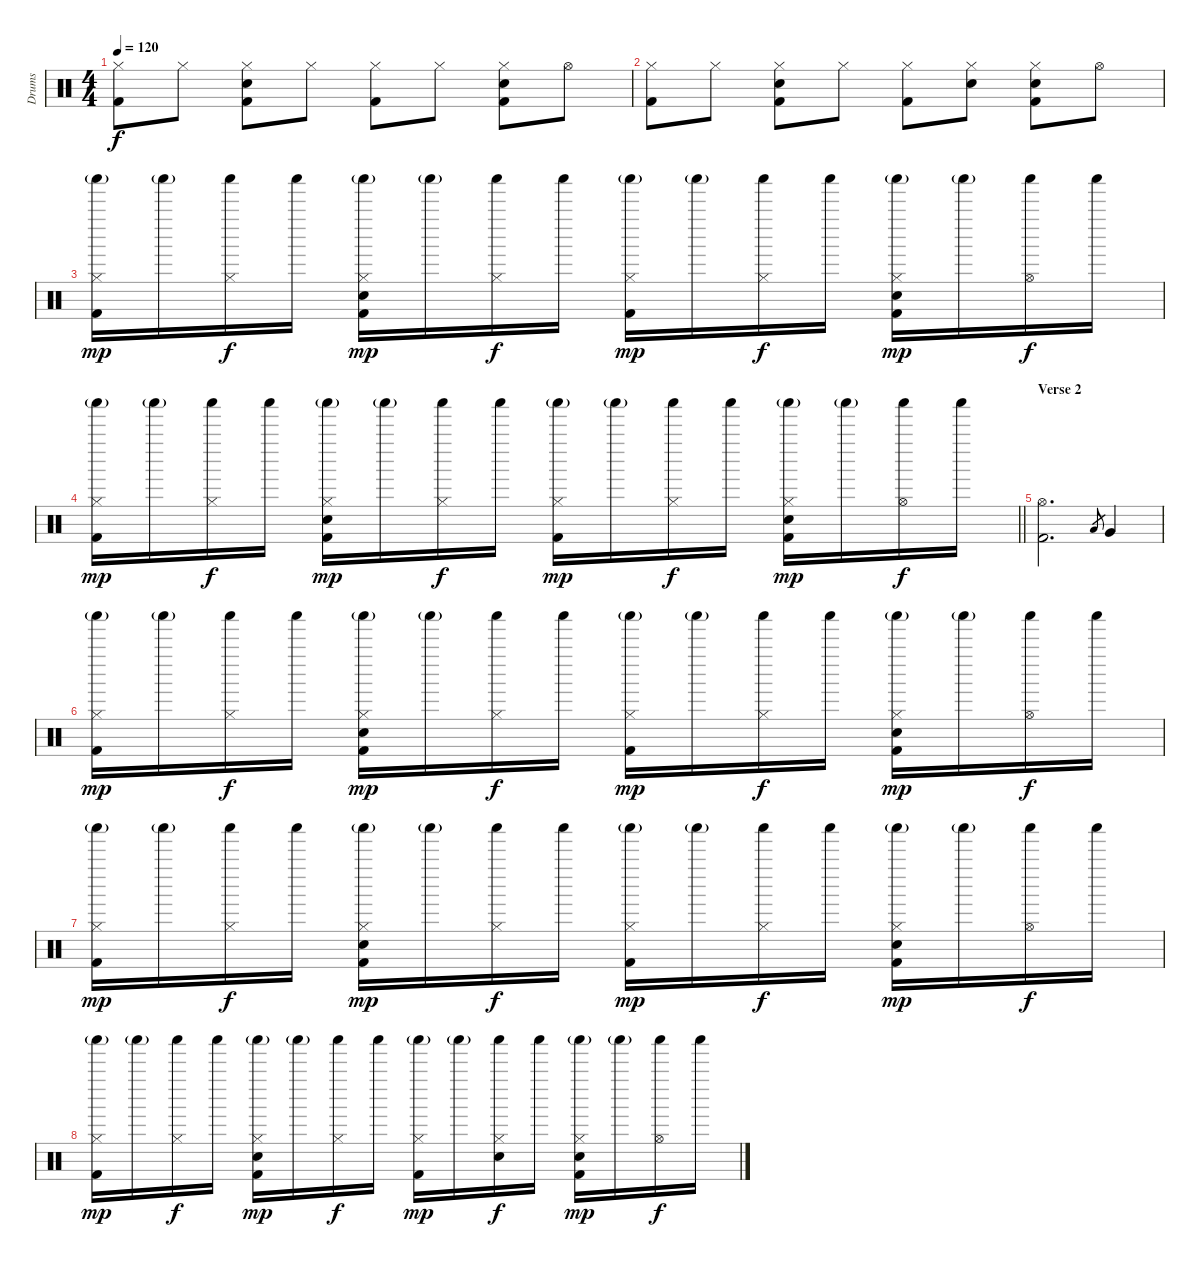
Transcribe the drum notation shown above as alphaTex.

\track ("Drums" "Drums") {instrument percussion}
\staff {score}
\articulation defaults
\ts (4 4)
\tempo 120
\clef neutral
\ks c
("Hi-Hat (closed)" "Kick (hit) 2").8{dy f} "Hi-Hat (closed)".8 ("Hi-Hat (closed)" "Electric Snare (hit)" "Kick (hit) 2").8 "Hi-Hat (closed)".8 ("Hi-Hat (closed)" "Kick (hit) 2").8 "Hi-Hat (closed)".8 ("Hi-Hat (closed)" "Electric Snare (hit)" "Kick (hit) 2").8 "Hi-Hat (open)".8 |
("Hi-Hat (closed)" "Kick (hit) 2").8 "Hi-Hat (closed)".8 ("Hi-Hat (closed)" "Electric Snare (hit)" "Kick (hit) 2").8 "Hi-Hat (closed)".8 ("Hi-Hat (closed)" "Kick (hit) 2").8 ("Hi-Hat (closed)" "Electric Snare (hit)").8 ("Hi-Hat (closed)" "Electric Snare (hit)" "Kick (hit) 2").8 "Hi-Hat (open)".8 |
("Hi-Hat (closed)" "Shaker (hit)"{g} "Kick (hit) 2").16{dy mp} "Shaker (hit)"{g}.16 ("Hi-Hat (closed)" "Shaker (hit)").16{dy f} "Shaker (hit)".16 ("Hi-Hat (closed)" "Shaker (hit)"{g} "Electric Snare (hit)" "Kick (hit) 2").16{dy mp} "Shaker (hit)"{g}.16 ("Hi-Hat (closed)" "Shaker (hit)").16{dy f} "Shaker (hit)".16 ("Hi-Hat (closed)" "Shaker (hit)"{g} "Kick (hit) 2").16{dy mp} "Shaker (hit)"{g}.16 ("Hi-Hat (closed)" "Shaker (hit)").16{dy f} "Shaker (hit)".16 ("Hi-Hat (closed)" "Shaker (hit)"{g} "Electric Snare (hit)" "Kick (hit) 2").16{dy mp} "Shaker (hit)"{g}.16 ("Hi-Hat (open)" "Shaker (hit)").16{dy f} "Shaker (hit)".16 |
\barLineRight lightlight
("Hi-Hat (closed)" "Shaker (hit)"{g} "Kick (hit) 2").16{dy mp} "Shaker (hit)"{g}.16 ("Hi-Hat (closed)" "Shaker (hit)").16{dy f} "Shaker (hit)".16 ("Hi-Hat (closed)" "Shaker (hit)"{g} "Electric Snare (hit)" "Kick (hit) 2").16{dy mp} "Shaker (hit)"{g}.16 ("Hi-Hat (closed)" "Shaker (hit)").16{dy f} "Shaker (hit)".16 ("Hi-Hat (closed)" "Shaker (hit)"{g} "Kick (hit) 2").16{dy mp} "Shaker (hit)"{g}.16 ("Hi-Hat (closed)" "Shaker (hit)").16{dy f} "Shaker (hit)".16 ("Hi-Hat (closed)" "Shaker (hit)"{g} "Electric Snare (hit)" "Kick (hit) 2").16{dy mp} "Shaker (hit)"{g}.16 ("Hi-Hat (open)" "Shaker (hit)").16{dy f} "Shaker (hit)".16 |
\section ("" "Verse 2")
("Hi-Hat (open)" "Kick (hit) 2").2{d} "Low Tom (hit)".8{gr} "Very Low Tom (hit)".4 |
("Hi-Hat (closed)" "Shaker (hit)"{g} "Kick (hit) 2").16{dy mp} "Shaker (hit)"{g}.16 ("Hi-Hat (closed)" "Shaker (hit)").16{dy f} "Shaker (hit)".16 ("Hi-Hat (closed)" "Shaker (hit)"{g} "Electric Snare (hit)" "Kick (hit) 2").16{dy mp} "Shaker (hit)"{g}.16 ("Hi-Hat (closed)" "Shaker (hit)").16{dy f} "Shaker (hit)".16 ("Hi-Hat (closed)" "Shaker (hit)"{g} "Kick (hit) 2").16{dy mp} "Shaker (hit)"{g}.16 ("Hi-Hat (closed)" "Shaker (hit)").16{dy f} "Shaker (hit)".16 ("Hi-Hat (closed)" "Shaker (hit)"{g} "Electric Snare (hit)" "Kick (hit) 2").16{dy mp} "Shaker (hit)"{g}.16 ("Hi-Hat (open)" "Shaker (hit)").16{dy f} "Shaker (hit)".16 |
("Hi-Hat (closed)" "Shaker (hit)"{g} "Kick (hit) 2").16{dy mp} "Shaker (hit)"{g}.16 ("Hi-Hat (closed)" "Shaker (hit)").16{dy f} "Shaker (hit)".16 ("Hi-Hat (closed)" "Shaker (hit)"{g} "Electric Snare (hit)" "Kick (hit) 2").16{dy mp} "Shaker (hit)"{g}.16 ("Hi-Hat (closed)" "Shaker (hit)").16{dy f} "Shaker (hit)".16 ("Hi-Hat (closed)" "Shaker (hit)"{g} "Kick (hit) 2").16{dy mp} "Shaker (hit)"{g}.16 ("Hi-Hat (closed)" "Shaker (hit)").16{dy f} "Shaker (hit)".16 ("Hi-Hat (closed)" "Shaker (hit)"{g} "Electric Snare (hit)" "Kick (hit) 2").16{dy mp} "Shaker (hit)"{g}.16 ("Hi-Hat (open)" "Shaker (hit)").16{dy f} "Shaker (hit)".16 |
("Hi-Hat (closed)" "Shaker (hit)"{g} "Kick (hit) 2").16{dy mp} "Shaker (hit)"{g}.16 ("Hi-Hat (closed)" "Shaker (hit)").16{dy f} "Shaker (hit)".16 ("Hi-Hat (closed)" "Shaker (hit)"{g} "Electric Snare (hit)" "Kick (hit) 2").16{dy mp} "Shaker (hit)"{g}.16 ("Hi-Hat (closed)" "Shaker (hit)").16{dy f} "Shaker (hit)".16 ("Hi-Hat (closed)" "Shaker (hit)"{g} "Kick (hit) 2").16{dy mp} "Shaker (hit)"{g}.16 ("Hi-Hat (closed)" "Shaker (hit)" "Electric Snare (hit)").16{dy f} "Shaker (hit)".16 ("Hi-Hat (closed)" "Shaker (hit)"{g} "Electric Snare (hit)" "Kick (hit) 2").16{dy mp} "Shaker (hit)"{g}.16 ("Hi-Hat (open)" "Shaker (hit)").16{dy f} "Shaker (hit)".16
